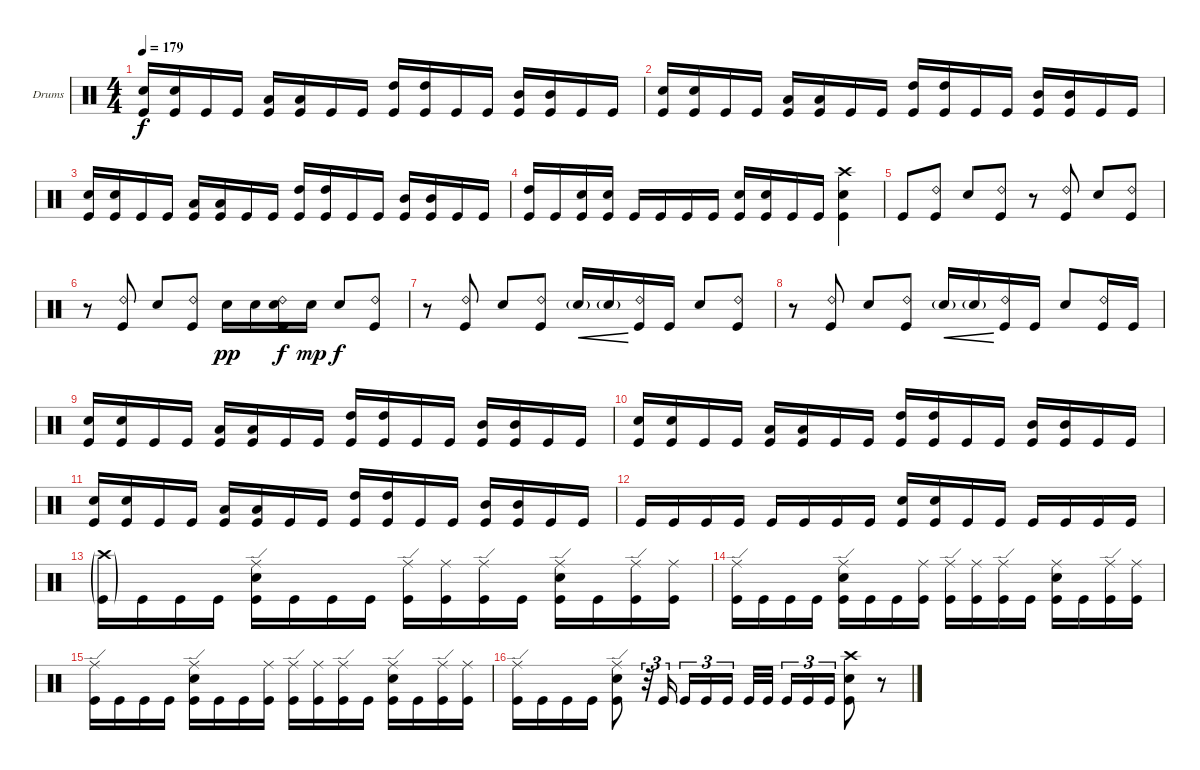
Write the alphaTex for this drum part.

\bracketExtendMode groupsimilarinstruments
\firstSystemTrackNameOrientation horizontal
\otherSystemsTrackNameOrientation horizontal
\track ("Drumkit" "Drums") {multiBarRest instrument percussion}
\staff {score}
\articulation defaults
\ts (4 4)
\tempo 179
\clef neutral
\ks c
("Snare (hit) 2" "Kick (hit)").16{dy f} ("Snare (hit) 2" "Kick (hit)").16 "Kick (hit)".16 "Kick (hit)".16 ("Low Tom (hit)" "Kick (hit)").16 ("Low Tom (hit)" "Kick (hit)").16 "Kick (hit)".16 "Kick (hit)".16 ("High Tom (hit)" "Kick (hit)").16 ("High Tom (hit)" "Kick (hit)").16 "Kick (hit)".16 "Kick (hit)".16 ("Mid Tom (hit)" "Kick (hit)").16 ("Mid Tom (hit)" "Kick (hit)").16 "Kick (hit)".16 "Kick (hit)".16 |
("Snare (hit) 2" "Kick (hit)").16 ("Snare (hit) 2" "Kick (hit)").16 "Kick (hit)".16 "Kick (hit)".16 ("Low Tom (hit)" "Kick (hit)").16 ("Low Tom (hit)" "Kick (hit)").16 "Kick (hit)".16 "Kick (hit)".16 ("High Tom (hit)" "Kick (hit)").16 ("High Tom (hit)" "Kick (hit)").16 "Kick (hit)".16 "Kick (hit)".16 ("Mid Tom (hit)" "Kick (hit)").16 ("Mid Tom (hit)" "Kick (hit)").16 "Kick (hit)".16 "Kick (hit)".16 |
("Snare (hit) 2" "Kick (hit)").16 ("Snare (hit) 2" "Kick (hit)").16 "Kick (hit)".16 "Kick (hit)".16 ("Low Tom (hit)" "Kick (hit)").16 ("Low Tom (hit)" "Kick (hit)").16 "Kick (hit)".16 "Kick (hit)".16 ("High Tom (hit)" "Kick (hit)").16 ("High Tom (hit)" "Kick (hit)").16 "Kick (hit)".16 "Kick (hit)".16 ("Mid Tom (hit)" "Kick (hit)").16 ("Mid Tom (hit)" "Kick (hit)").16 "Kick (hit)".16 "Kick (hit)".16 |
("High Tom (hit)" "Kick (hit)").16 "Kick (hit)".16 ("Snare (hit) 2" "Kick (hit)").16 ("Snare (hit) 2" "Kick (hit)").16 "Kick (hit)".16 "Kick (hit)".16 "Kick (hit)".16 "Kick (hit)".16 ("Snare (hit) 2" "Kick (hit)").16 ("Snare (hit) 2" "Kick (hit)").16 "Kick (hit)".16 "Kick (hit)".16 ("Crash high (hit)" "Snare (hit) 2" "Kick (hit)").4 |
"Kick (hit)".8 ("Ride (bell) 2" "Kick (hit)").8 "Snare (hit) 2".8 ("Ride (bell) 2" "Kick (hit)").8 r.8 ("Ride (bell) 2" "Kick (hit)").8 "Snare (hit) 2".8 ("Ride (bell) 2" "Kick (hit)").8 |
r.8 ("Ride (bell) 2" "Kick (hit)").8 "Snare (hit) 2".8 ("Ride (bell) 2" "Kick (hit)").8 "Snare (hit) 2".16{dy pp} "Snare (hit) 2".16 ("Ride (bell) 2" "Snare (hit) 2" "Kick (hit)").16{dy f} "Snare (hit) 2".16{dy mp} "Snare (hit) 2".8{dy f} ("Ride (bell) 2" "Kick (hit)").8 |
r.8 ("Ride (bell) 2" "Kick (hit)").8 "Snare (hit) 2".8 ("Ride (bell) 2" "Kick (hit)").8 "Snare (hit) 2"{g}.16{cre} "Snare (hit) 2"{g}.16{cre} ("Ride (bell) 2" "Kick (hit)").16 "Kick (hit)".16 "Snare (hit) 2".8 ("Ride (bell) 2" "Kick (hit)").8 |
r.8 ("Ride (bell) 2" "Kick (hit)").8 "Snare (hit) 2".8 ("Ride (bell) 2" "Kick (hit)").8 "Snare (hit) 2"{g}.16{cre} "Snare (hit) 2"{g}.16{cre} ("Ride (bell) 2" "Kick (hit)").16 "Kick (hit)".16 "Snare (hit) 2".8 ("Ride (bell) 2" "Kick (hit)").16 "Kick (hit)".16 |
("Snare (hit) 2" "Kick (hit)").16 ("Snare (hit) 2" "Kick (hit)").16 "Kick (hit)".16 "Kick (hit)".16 ("Low Tom (hit)" "Kick (hit)").16 ("Low Tom (hit)" "Kick (hit)").16 "Kick (hit)".16 "Kick (hit)".16 ("High Tom (hit)" "Kick (hit)").16 ("High Tom (hit)" "Kick (hit)").16 "Kick (hit)".16 "Kick (hit)".16 ("Mid Tom (hit)" "Kick (hit)").16 ("Mid Tom (hit)" "Kick (hit)").16 "Kick (hit)".16 "Kick (hit)".16 |
("Snare (hit) 2" "Kick (hit)").16 ("Snare (hit) 2" "Kick (hit)").16 "Kick (hit)".16 "Kick (hit)".16 ("Low Tom (hit)" "Kick (hit)").16 ("Low Tom (hit)" "Kick (hit)").16 "Kick (hit)".16 "Kick (hit)".16 ("High Tom (hit)" "Kick (hit)").16 ("High Tom (hit)" "Kick (hit)").16 "Kick (hit)".16 "Kick (hit)".16 ("Mid Tom (hit)" "Kick (hit)").16 ("Mid Tom (hit)" "Kick (hit)").16 "Kick (hit)".16 "Kick (hit)".16 |
("Snare (hit) 2" "Kick (hit)").16 ("Snare (hit) 2" "Kick (hit)").16 "Kick (hit)".16 "Kick (hit)".16 ("Low Tom (hit)" "Kick (hit)").16 ("Low Tom (hit)" "Kick (hit)").16 "Kick (hit)".16 "Kick (hit)".16 ("High Tom (hit)" "Kick (hit)").16 ("High Tom (hit)" "Kick (hit)").16 "Kick (hit)".16 "Kick (hit)".16 ("Mid Tom (hit)" "Kick (hit)").16 ("Mid Tom (hit)" "Kick (hit)").16 "Kick (hit)".16 "Kick (hit)".16 |
"Kick (hit)".16 "Kick (hit)".16 "Kick (hit)".16 "Kick (hit)".16 "Kick (hit)".16 "Kick (hit)".16 "Kick (hit)".16 "Kick (hit)".16 ("Snare (hit) 2" "Kick (hit)").16 ("Snare (hit) 2" "Kick (hit)").16 "Kick (hit)".16 "Kick (hit)".16 "Kick (hit)".16 "Kick (hit)".16 "Kick (hit)".16 "Kick (hit)".16 |
("Crash high (hit)"{g} "Kick (hit)"{g}).16 "Kick (hit)".16 "Kick (hit)".16 "Kick (hit)".16 ("Ride (edge)" "Snare (hit) 2" "Kick (hit)").16 "Kick (hit)".16 "Kick (hit)".16 "Kick (hit)".16 ("Ride (edge)" "Kick (hit)").16 ("Ride (middle)" "Kick (hit)").16 ("Ride (edge)" "Kick (hit)").16 "Kick (hit)".16 ("Ride (edge)" "Snare (hit) 2" "Kick (hit)").16 "Kick (hit)".16 ("Ride (edge)" "Kick (hit)").16 ("Ride (middle)" "Kick (hit)").16 |
("Ride (edge)" "Kick (hit)").16 "Kick (hit)".16 "Kick (hit)".16 "Kick (hit)".16 ("Ride (edge)" "Snare (hit) 2" "Kick (hit)").16 "Kick (hit)".16 "Kick (hit)".16 ("Ride (middle)" "Kick (hit)").16 ("Ride (edge)" "Kick (hit)").16 ("Ride (middle)" "Kick (hit)").16 ("Ride (edge)" "Kick (hit)").16 "Kick (hit)".16 ("Ride (middle)" "Snare (hit) 2" "Kick (hit)").16 "Kick (hit)".16 ("Ride (edge)" "Kick (hit)").16 ("Ride (middle)" "Kick (hit)").16 |
("Ride (edge)" "Kick (hit)").16 "Kick (hit)".16 "Kick (hit)".16 "Kick (hit)".16 ("Ride (edge)" "Snare (hit) 2" "Kick (hit)").16 "Kick (hit)".16 "Kick (hit)".16 ("Ride (middle)" "Kick (hit)").16 ("Ride (edge)" "Kick (hit)").16 ("Ride (middle)" "Kick (hit)").16 ("Ride (edge)" "Kick (hit)").16 "Kick (hit)".16 ("Ride (edge)" "Snare (hit) 2" "Kick (hit)").16 "Kick (hit)".16 ("Ride (edge)" "Kick (hit)").16 ("Ride (middle)" "Kick (hit)").16 |
("Ride (edge)" "Kick (hit)").16 "Kick (hit)".16 "Kick (hit)".16 "Kick (hit)".16 ("Ride (edge)" "Snare (hit) 2" "Kick (hit)").8 r.32{tu (3 2)} "Kick (hit)".16{tu (3 2)} "Kick (hit)".16{tu (3 2)} "Kick (hit)".16{tu (3 2)} "Kick (hit)".16{tu (3 2)} "Kick (hit)".32 "Kick (hit)".32 "Kick (hit)".16{tu (3 2)} "Kick (hit)".16{tu (3 2)} "Kick (hit)".16{tu (3 2)} ("Crash high (hit)" "Snare (hit) 2" "Kick (hit)").8 r.8
